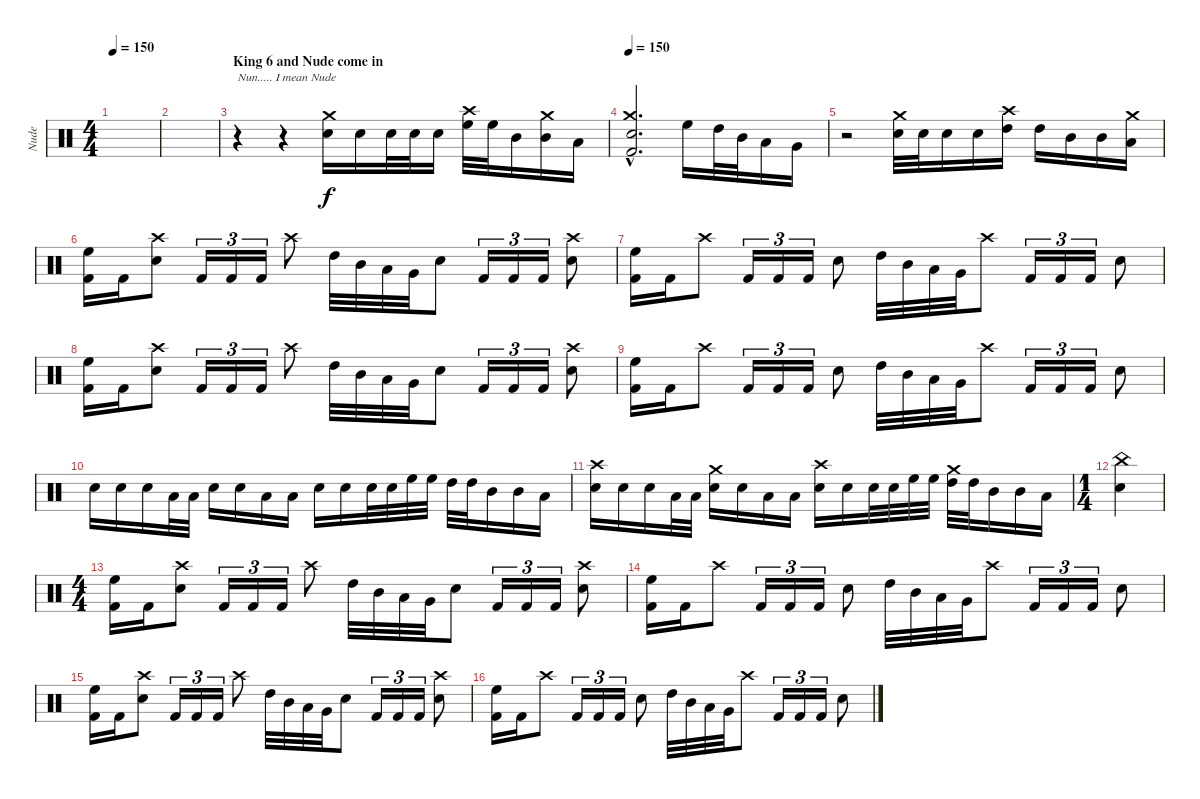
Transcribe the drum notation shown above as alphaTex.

\track ("Nude" "Nude") {instrument percussion}
\staff {score}
\articulation defaults
\ts (4 4)
\tempo 150
\clef neutral
\ks c
|
|
\section ("" "King 6 and Nude come in")
r.4{txt "Nun..... I mean Nude"} r.4 ("Electric Snare (hit)" "Crash medium (hit)").16 "Electric Snare (hit)".16 "Electric Snare (hit)".32 "Electric Snare (hit)".32 "Electric Snare (hit)".16 ("High Floor Tom (hit)" "Crash high (hit)").32 "High Floor Tom (hit)".32 "Mid Tom (hit)".16 ("Mid Tom (hit)" "Crash medium (hit)").16 "Low Tom (hit)".16 |
\tempo 150
("Electric Snare (hit)"{hac} "Kick (hit) 2"{hac} "Crash medium (hit)"{hac}).2{d} "High Floor Tom (hit)".16 "High Tom (hit)".32 "Mid Tom (hit)".32 "Low Tom (hit)".16 "Very Low Tom (hit)".16 |
r.2 ("Electric Snare (hit)" "Crash medium (hit)").32 "Electric Snare (hit)".32 "Electric Snare (hit)".16 "Electric Snare (hit)".16 ("High Tom (hit)" "Crash high (hit)").16 "High Tom (hit)".16 "Mid Tom (hit)".16 "Mid Tom (hit)".16 ("Low Tom (hit)" "Crash medium (hit)").16 |
("Kick (hit) 2" "High Floor Tom (hit)").16 "Kick (hit) 2".16 ("Electric Snare (hit)" "Crash high (hit)").8 "Kick (hit) 2".16{tu (3 2)} "Kick (hit) 2".16{tu (3 2)} "Kick (hit) 2".16{tu (3 2)} "Crash high (hit)".8 "High Tom (hit)".32 "Mid Tom (hit)".32 "Low Tom (hit)".32 "Very Low Tom (hit)".32 "Electric Snare (hit)".8 "Kick (hit) 2".16{tu (3 2)} "Kick (hit) 2".16{tu (3 2)} "Kick (hit) 2".16{tu (3 2)} ("Crash high (hit)" "Electric Snare (hit)").8 |
("Kick (hit) 2" "High Floor Tom (hit)").16 "Kick (hit) 2".16 "Crash high (hit)".8 "Kick (hit) 2".16{tu (3 2)} "Kick (hit) 2".16{tu (3 2)} "Kick (hit) 2".16{tu (3 2)} "Electric Snare (hit)".8 "High Tom (hit)".32 "Mid Tom (hit)".32 "Low Tom (hit)".32 "Very Low Tom (hit)".32 "Crash high (hit)".8 "Kick (hit) 2".16{tu (3 2)} "Kick (hit) 2".16{tu (3 2)} "Kick (hit) 2".16{tu (3 2)} "Electric Snare (hit)".8 |
("Kick (hit) 2" "High Floor Tom (hit)").16 "Kick (hit) 2".16 ("Electric Snare (hit)" "Crash high (hit)").8 "Kick (hit) 2".16{tu (3 2)} "Kick (hit) 2".16{tu (3 2)} "Kick (hit) 2".16{tu (3 2)} "Crash high (hit)".8 "High Tom (hit)".32 "Mid Tom (hit)".32 "Low Tom (hit)".32 "Very Low Tom (hit)".32 "Electric Snare (hit)".8 "Kick (hit) 2".16{tu (3 2)} "Kick (hit) 2".16{tu (3 2)} "Kick (hit) 2".16{tu (3 2)} ("Crash high (hit)" "Electric Snare (hit)").8 |
("Kick (hit) 2" "High Floor Tom (hit)").16 "Kick (hit) 2".16 "Crash high (hit)".8 "Kick (hit) 2".16{tu (3 2)} "Kick (hit) 2".16{tu (3 2)} "Kick (hit) 2".16{tu (3 2)} "Electric Snare (hit)".8 "High Tom (hit)".32 "Mid Tom (hit)".32 "Low Tom (hit)".32 "Very Low Tom (hit)".32 "Crash high (hit)".8 "Kick (hit) 2".16{tu (3 2)} "Kick (hit) 2".16{tu (3 2)} "Kick (hit) 2".16{tu (3 2)} "Electric Snare (hit)".8 |
"Electric Snare (hit)".16 "Electric Snare (hit)".16 "Electric Snare (hit)".16 "Low Tom (hit)".32 "Low Tom (hit)".32 "Electric Snare (hit)".16 "Electric Snare (hit)".16 "Low Tom (hit)".16 "Low Tom (hit)".16 "Electric Snare (hit)".16 "Electric Snare (hit)".16 "Electric Snare (hit)".32 "Electric Snare (hit)".32 "High Floor Tom (hit)".32 "High Floor Tom (hit)".32 "High Tom (hit)".32 "High Tom (hit)".32 "Mid Tom (hit)".16 "Mid Tom (hit)".16 "Low Tom (hit)".16 |
("Electric Snare (hit)" "Crash high (hit)").16 "Electric Snare (hit)".16 "Electric Snare (hit)".16 "Low Tom (hit)".32 "Low Tom (hit)".32 ("Electric Snare (hit)" "Crash medium (hit)").16 "Electric Snare (hit)".16 "Low Tom (hit)".16 "Low Tom (hit)".16 ("Electric Snare (hit)" "Crash high (hit)").16 "Electric Snare (hit)".16 "Electric Snare (hit)".32 "Electric Snare (hit)".32 "High Floor Tom (hit)".32 "High Floor Tom (hit)".32 ("High Tom (hit)" "Crash medium (hit)").32 "High Tom (hit)".32 "Mid Tom (hit)".16 "Mid Tom (hit)".16 "Low Tom (hit)".16 |
\ts (1 4)
("Electric Snare (hit)" "China (hit)").4 |
\ts (4 4)
("Kick (hit) 2" "High Floor Tom (hit)").16 "Kick (hit) 2".16 ("Electric Snare (hit)" "Crash high (hit)").8 "Kick (hit) 2".16{tu (3 2)} "Kick (hit) 2".16{tu (3 2)} "Kick (hit) 2".16{tu (3 2)} "Crash high (hit)".8 "High Tom (hit)".32 "Mid Tom (hit)".32 "Low Tom (hit)".32 "Very Low Tom (hit)".32 "Electric Snare (hit)".8 "Kick (hit) 2".16{tu (3 2)} "Kick (hit) 2".16{tu (3 2)} "Kick (hit) 2".16{tu (3 2)} ("Crash high (hit)" "Electric Snare (hit)").8 |
("Kick (hit) 2" "High Floor Tom (hit)").16 "Kick (hit) 2".16 "Crash high (hit)".8 "Kick (hit) 2".16{tu (3 2)} "Kick (hit) 2".16{tu (3 2)} "Kick (hit) 2".16{tu (3 2)} "Electric Snare (hit)".8 "High Tom (hit)".32 "Mid Tom (hit)".32 "Low Tom (hit)".32 "Very Low Tom (hit)".32 "Crash high (hit)".8 "Kick (hit) 2".16{tu (3 2)} "Kick (hit) 2".16{tu (3 2)} "Kick (hit) 2".16{tu (3 2)} "Electric Snare (hit)".8 |
("Kick (hit) 2" "High Floor Tom (hit)").16 "Kick (hit) 2".16 ("Electric Snare (hit)" "Crash high (hit)").8 "Kick (hit) 2".16{tu (3 2)} "Kick (hit) 2".16{tu (3 2)} "Kick (hit) 2".16{tu (3 2)} "Crash high (hit)".8 "High Tom (hit)".32 "Mid Tom (hit)".32 "Low Tom (hit)".32 "Very Low Tom (hit)".32 "Electric Snare (hit)".8 "Kick (hit) 2".16{tu (3 2)} "Kick (hit) 2".16{tu (3 2)} "Kick (hit) 2".16{tu (3 2)} ("Crash high (hit)" "Electric Snare (hit)").8 |
("Kick (hit) 2" "High Floor Tom (hit)").16 "Kick (hit) 2".16 "Crash high (hit)".8 "Kick (hit) 2".16{tu (3 2)} "Kick (hit) 2".16{tu (3 2)} "Kick (hit) 2".16{tu (3 2)} "Electric Snare (hit)".8 "High Tom (hit)".32 "Mid Tom (hit)".32 "Low Tom (hit)".32 "Very Low Tom (hit)".32 "Crash high (hit)".8 "Kick (hit) 2".16{tu (3 2)} "Kick (hit) 2".16{tu (3 2)} "Kick (hit) 2".16{tu (3 2)} "Electric Snare (hit)".8
